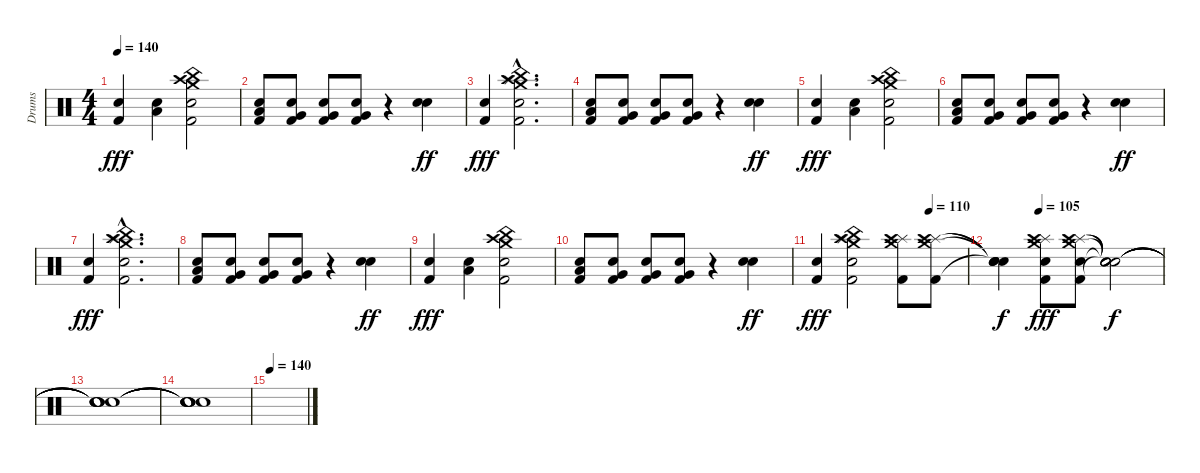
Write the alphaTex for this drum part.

\track ("Drums" "Drums") {instrument percussion}
\staff {score}
\articulation defaults
\ts (4 4)
\tempo 140
\clef neutral
\ks c
("Kick (hit) 2" "Snare (hit) 2").4{dy fff} ("Low Floor Tom (hit)" "Snare (hit) 2").4 ("Crash medium (hit)" "Snare (hit) 2" "China (hit)" "Crash high (hit)" "Kick (hit) 2").2 |
("Snare (hit) 2" "Low Floor Tom (hit)" "Kick (hit) 2").8 ("Snare (hit) 2" "Very Low Tom (hit)" "Kick (hit) 2").8 ("Snare (hit) 2" "Very Low Tom (hit)" "Kick (hit) 2").8 ("Snare (hit) 2" "Very Low Tom (hit)" "Kick (hit) 2").8 r.4 ("Electric Snare (hit)" "Snare (hit) 2").4{dy ff} |
("Snare (hit) 2" "Kick (hit) 2").4{dy fff} ("Crash medium (hit)"{hac} "China (hit)"{hac} "Snare (hit) 2"{hac} "Kick (hit) 2"{hac} "Splash (hit)"{hac} "Crash high (hit)"{hac}).2{d} |
("Snare (hit) 2" "Low Floor Tom (hit)" "Kick (hit) 2").8 ("Snare (hit) 2" "Very Low Tom (hit)" "Kick (hit) 2").8 ("Snare (hit) 2" "Very Low Tom (hit)" "Kick (hit) 2").8 ("Snare (hit) 2" "Very Low Tom (hit)" "Kick (hit) 2").8 r.4 ("Electric Snare (hit)" "Snare (hit) 2").4{dy ff} |
("Kick (hit) 2" "Snare (hit) 2").4{dy fff} ("Low Floor Tom (hit)" "Snare (hit) 2").4 ("Crash medium (hit)" "Snare (hit) 2" "China (hit)" "Crash high (hit)" "Kick (hit) 2").2 |
("Snare (hit) 2" "Low Floor Tom (hit)" "Kick (hit) 2").8 ("Snare (hit) 2" "Very Low Tom (hit)" "Kick (hit) 2").8 ("Snare (hit) 2" "Very Low Tom (hit)" "Kick (hit) 2").8 ("Snare (hit) 2" "Very Low Tom (hit)" "Kick (hit) 2").8 r.4 ("Electric Snare (hit)" "Snare (hit) 2").4{dy ff} |
("Snare (hit) 2" "Kick (hit) 2").4{dy fff} ("Crash medium (hit)"{hac} "China (hit)"{hac} "Snare (hit) 2"{hac} "Kick (hit) 2"{hac} "Splash (hit)"{hac} "Crash high (hit)"{hac}).2{d} |
("Snare (hit) 2" "Low Floor Tom (hit)" "Kick (hit) 2").8 ("Snare (hit) 2" "Very Low Tom (hit)" "Kick (hit) 2").8 ("Snare (hit) 2" "Very Low Tom (hit)" "Kick (hit) 2").8 ("Snare (hit) 2" "Very Low Tom (hit)" "Kick (hit) 2").8 r.4 ("Electric Snare (hit)" "Snare (hit) 2").4{dy ff} |
("Kick (hit) 2" "Snare (hit) 2").4{dy fff} ("Low Floor Tom (hit)" "Snare (hit) 2").4 ("Crash medium (hit)" "Snare (hit) 2" "China (hit)" "Crash high (hit)" "Kick (hit) 2").2 |
("Snare (hit) 2" "Low Floor Tom (hit)" "Kick (hit) 2").8 ("Snare (hit) 2" "Very Low Tom (hit)" "Kick (hit) 2").8 ("Snare (hit) 2" "Very Low Tom (hit)" "Kick (hit) 2").8 ("Snare (hit) 2" "Very Low Tom (hit)" "Kick (hit) 2").8 r.4 ("Electric Snare (hit)" "Snare (hit) 2").4{dy ff} |
\tempo (110 0.75)
("Snare (hit) 2" "Kick (hit) 2").4{dy fff} ("Crash medium (hit)" "China (hit)" "Snare (hit) 2" "Kick (hit) 2" "Splash (hit)" "Crash high (hit)").2 ("Crash medium (hit)" "Splash (hit)" "Crash high (hit)" "Kick (hit) 2").8 ("Crash medium (hit)" "Splash (hit)" "Crash high (hit)" "Kick (hit) 2").8 |
\tempo (105 0.25)
("Snare (hit)"{t} "Snare (hit)"{t} "Snare (hit)"{t} "Snare (hit)"{t}).4{dy f} ("Splash (hit)" "Crash high (hit)" "Crash medium (hit)" "Snare (hit) 2" "Kick (hit) 2").8{dy fff} ("Splash (hit)" "Crash high (hit)" "Crash medium (hit)" "Snare (hit) 2" "Kick (hit) 2").8 ("Snare (hit)"{t} "Snare (hit)"{t} "Snare (hit)"{t} "Snare (hit)"{t} "Snare (hit)"{t}).2{dy f} |
("Snare (hit)"{t} "Snare (hit)"{t} "Snare (hit)"{t} "Snare (hit)"{t} "Snare (hit)"{t}).1 |
("Snare (hit)"{t} "Snare (hit)"{t} "Snare (hit)"{t} "Snare (hit)"{t} "Snare (hit)"{t}).1 |
\tempo 140
